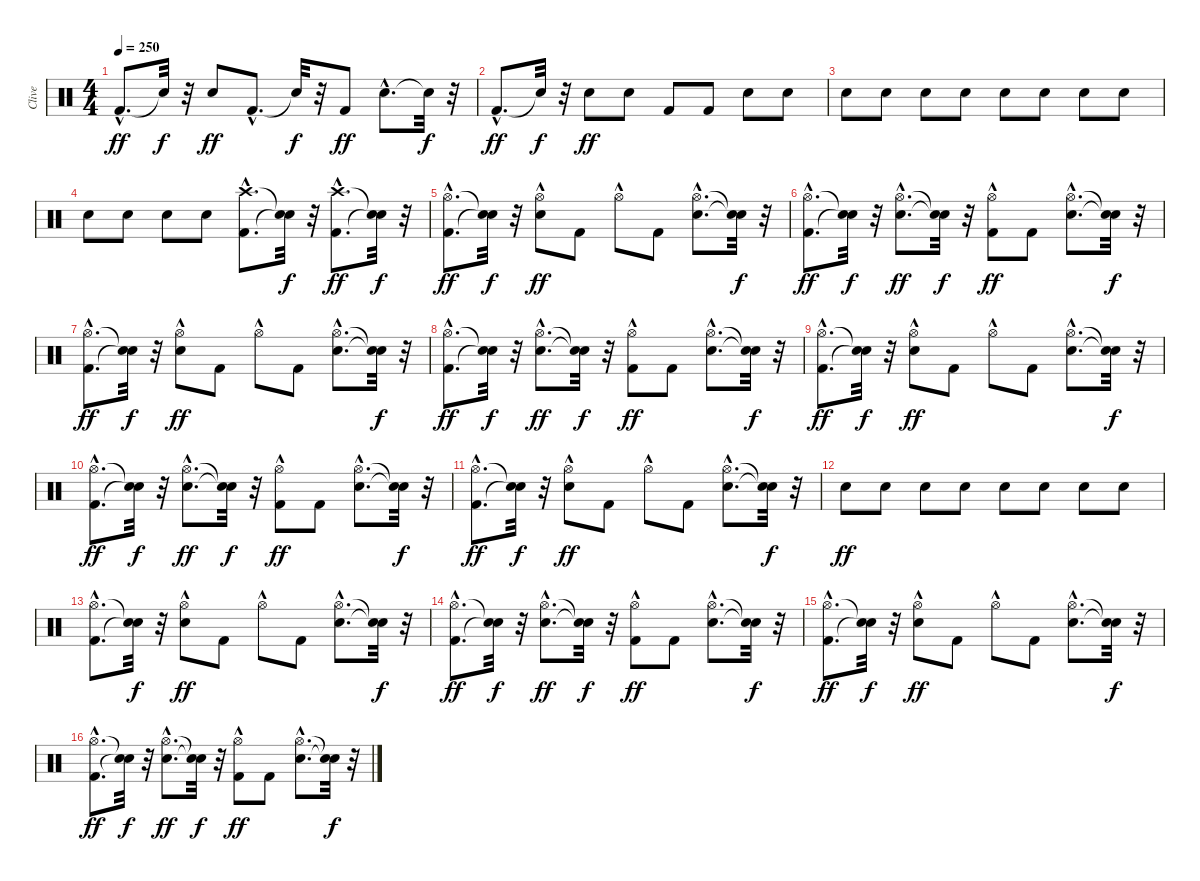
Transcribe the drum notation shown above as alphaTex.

\track ("Clive" "Clive") {instrument percussion}
\staff {score}
\articulation defaults
\ts (4 4)
\tempo 250
\clef neutral
\ks c "Kick (hit) 2"{hac}.8{d dy ff} "Snare (hit)"{t}.32{dy f}
r.32 "Snare (hit) 2".8{dy ff} "Kick (hit) 2"{hac}.8{d} "Snare (hit)"{t}.32{dy f} r.32 "Kick (hit) 2".8{dy ff} "Snare (hit) 2"{hac}.8{d} "Snare (hit)"{t}.32{dy f} r.32 |
"Kick (hit) 2"{hac}.8{d dy ff} "Snare (hit)"{t}.32{dy f} r.32 "Snare (hit) 2".8{dy ff} "Snare (hit) 2".8 "Kick (hit) 2".8 "Kick (hit) 2".8 "Snare (hit) 2".8 "Snare (hit) 2".8 |
"Snare (hit) 2".8 "Snare (hit) 2".8 "Snare (hit) 2".8 "Snare (hit) 2".8 "Snare (hit) 2".8 "Snare (hit) 2".8 "Snare (hit) 2".8 "Snare (hit) 2".8 |
"Snare (hit) 2".8 "Snare (hit) 2".8 "Snare (hit) 2".8 "Snare (hit) 2".8 ("Kick (hit) 2"{hac} "Crash high (hit)"{hac}).8{d} ("Snare (hit)"{t} "Snare (hit)"{t}).32{dy f} r.32 ("Kick (hit) 2"{hac} "Crash high (hit)"{hac}).8{d dy ff} ("Snare (hit)"{t} "Snare (hit)"{t}).32{dy f} r.32 |
("Kick (hit) 2"{hac} "Hi-Hat (open)"{hac}).8{d dy ff} ("Snare (hit)"{t} "Snare (hit)"{t}).32{dy f} r.32 ("Snare (hit) 2" "Hi-Hat (open)"{hac}).8{dy ff} "Kick (hit) 2".8 "Hi-Hat (open)"{hac}.8 "Kick (hit) 2".8 ("Snare (hit) 2"{hac} "Hi-Hat (open)"{hac}).8{d} ("Snare (hit)"{t} "Snare (hit)"{t}).32{dy f} r.32 |
("Kick (hit) 2"{hac} "Hi-Hat (open)"{hac}).8{d dy ff} ("Snare (hit)"{t} "Snare (hit)"{t}).32{dy f} r.32 ("Snare (hit) 2"{hac} "Hi-Hat (open)"{hac}).8{d dy ff} ("Snare (hit)"{t} "Snare (hit)"{t}).32{dy f} r.32 ("Kick (hit) 2" "Hi-Hat (open)"{hac}).8{dy ff} "Kick (hit) 2".8 ("Snare (hit) 2"{hac} "Hi-Hat (open)"{hac}).8{d} ("Snare (hit)"{t} "Snare (hit)"{t}).32{dy f} r.32 |
("Kick (hit) 2"{hac} "Hi-Hat (open)"{hac}).8{d dy ff} ("Snare (hit)"{t} "Snare (hit)"{t}).32{dy f} r.32 ("Snare (hit) 2" "Hi-Hat (open)"{hac}).8{dy ff} "Kick (hit) 2".8 "Hi-Hat (open)"{hac}.8 "Kick (hit) 2".8 ("Snare (hit) 2"{hac} "Hi-Hat (open)"{hac}).8{d} ("Snare (hit)"{t} "Snare (hit)"{t}).32{dy f} r.32 |
("Kick (hit) 2"{hac} "Hi-Hat (open)"{hac}).8{d dy ff} ("Snare (hit)"{t} "Snare (hit)"{t}).32{dy f} r.32 ("Snare (hit) 2"{hac} "Hi-Hat (open)"{hac}).8{d dy ff} ("Snare (hit)"{t} "Snare (hit)"{t}).32{dy f} r.32 ("Kick (hit) 2" "Hi-Hat (open)"{hac}).8{dy ff} "Kick (hit) 2".8 ("Snare (hit) 2"{hac} "Hi-Hat (open)"{hac}).8{d} ("Snare (hit)"{t} "Snare (hit)"{t}).32{dy f} r.32 |
("Kick (hit) 2"{hac} "Hi-Hat (open)"{hac}).8{d dy ff} ("Snare (hit)"{t} "Snare (hit)"{t}).32{dy f} r.32 ("Snare (hit) 2" "Hi-Hat (open)"{hac}).8{dy ff} "Kick (hit) 2".8 "Hi-Hat (open)"{hac}.8 "Kick (hit) 2".8 ("Snare (hit) 2"{hac} "Hi-Hat (open)"{hac}).8{d} ("Snare (hit)"{t} "Snare (hit)"{t}).32{dy f} r.32 |
("Kick (hit) 2"{hac} "Hi-Hat (open)"{hac}).8{d dy ff} ("Snare (hit)"{t} "Snare (hit)"{t}).32{dy f} r.32 ("Snare (hit) 2"{hac} "Hi-Hat (open)"{hac}).8{d dy ff} ("Snare (hit)"{t} "Snare (hit)"{t}).32{dy f} r.32 ("Kick (hit) 2" "Hi-Hat (open)"{hac}).8{dy ff} "Kick (hit) 2".8 ("Snare (hit) 2"{hac} "Hi-Hat (open)"{hac}).8{d} ("Snare (hit)"{t} "Snare (hit)"{t}).32{dy f} r.32 |
("Kick (hit) 2"{hac} "Hi-Hat (open)"{hac}).8{d dy ff} ("Snare (hit)"{t} "Snare (hit)"{t}).32{dy f} r.32 ("Snare (hit) 2" "Hi-Hat (open)"{hac}).8{dy ff} "Kick (hit) 2".8 "Hi-Hat (open)"{hac}.8 "Kick (hit) 2".8 ("Snare (hit) 2"{hac} "Hi-Hat (open)"{hac}).8{d} ("Snare (hit)"{t} "Snare (hit)"{t}).32{dy f} r.32 |
"Snare (hit) 2".8{dy ff} "Snare (hit) 2".8 "Snare (hit) 2".8 "Snare (hit) 2".8 "Snare (hit) 2".8 "Snare (hit) 2".8 "Snare (hit) 2".8 "Snare (hit) 2".8 |
("Kick (hit) 2"{hac} "Hi-Hat (open)"{hac}).8{d} ("Snare (hit)"{t} "Snare (hit)"{t}).32{dy f} r.32 ("Snare (hit) 2" "Hi-Hat (open)"{hac}).8{dy ff} "Kick (hit) 2".8 "Hi-Hat (open)"{hac}.8 "Kick (hit) 2".8 ("Snare (hit) 2"{hac} "Hi-Hat (open)"{hac}).8{d} ("Snare (hit)"{t} "Snare (hit)"{t}).32{dy f} r.32 |
("Kick (hit) 2"{hac} "Hi-Hat (open)"{hac}).8{d dy ff} ("Snare (hit)"{t} "Snare (hit)"{t}).32{dy f} r.32 ("Snare (hit) 2"{hac} "Hi-Hat (open)"{hac}).8{d dy ff} ("Snare (hit)"{t} "Snare (hit)"{t}).32{dy f} r.32 ("Kick (hit) 2" "Hi-Hat (open)"{hac}).8{dy ff} "Kick (hit) 2".8 ("Snare (hit) 2"{hac} "Hi-Hat (open)"{hac}).8{d} ("Snare (hit)"{t} "Snare (hit)"{t}).32{dy f} r.32 |
("Kick (hit) 2"{hac} "Hi-Hat (open)"{hac}).8{d dy ff} ("Snare (hit)"{t} "Snare (hit)"{t}).32{dy f} r.32 ("Snare (hit) 2" "Hi-Hat (open)"{hac}).8{dy ff} "Kick (hit) 2".8 "Hi-Hat (open)"{hac}.8 "Kick (hit) 2".8 ("Snare (hit) 2"{hac} "Hi-Hat (open)"{hac}).8{d} ("Snare (hit)"{t} "Snare (hit)"{t}).32{dy f} r.32 |
("Kick (hit) 2"{hac} "Hi-Hat (open)"{hac}).8{d dy ff} ("Snare (hit)"{t} "Snare (hit)"{t}).32{dy f} r.32 ("Snare (hit) 2"{hac} "Hi-Hat (open)"{hac}).8{d dy ff} ("Snare (hit)"{t} "Snare (hit)"{t}).32{dy f} r.32 ("Kick (hit) 2" "Hi-Hat (open)"{hac}).8{dy ff} "Kick (hit) 2".8 ("Snare (hit) 2"{hac} "Hi-Hat (open)"{hac}).8{d} ("Snare (hit)"{t} "Snare (hit)"{t}).32{dy f} r.32
